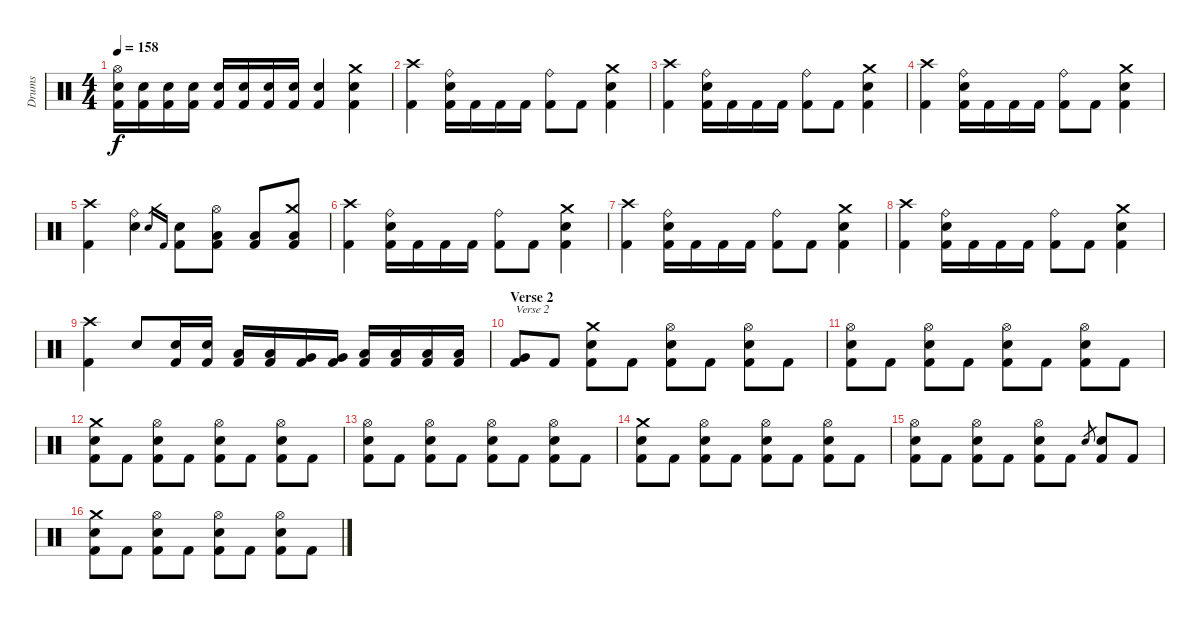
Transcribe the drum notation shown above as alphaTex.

\track ("Drums" "Drums") {instrument percussion}
\staff {score}
\articulation defaults
\ts (4 4)
\tempo 158
\clef neutral
\ks c
("Hi-Hat (open)" "Electric Snare (hit)" "Kick (hit) 2").16{dy f} ("Electric Snare (hit)" "Kick (hit) 2").16 ("Electric Snare (hit)" "Kick (hit) 2").16 ("Electric Snare (hit)" "Kick (hit) 2").16 ("Electric Snare (hit)" "Kick (hit) 2").16 ("Electric Snare (hit)" "Kick (hit) 2").16 ("Electric Snare (hit)" "Kick (hit) 2").16 ("Electric Snare (hit)" "Kick (hit) 2").16 ("Electric Snare (hit)" "Kick (hit) 2").4 ("Crash medium (hit)" "Electric Snare (hit)" "Kick (hit) 2").4 |
("Crash high (hit)" "Kick (hit) 2").4 ("Ride (bell)" "Electric Snare (hit)" "Kick (hit) 2").16 "Kick (hit) 2".16 "Kick (hit) 2".16 "Kick (hit) 2".16 ("Ride (bell)" "Kick (hit) 2").8 "Kick (hit) 2".8 ("Crash medium (hit)" "Electric Snare (hit)" "Kick (hit) 2").4 |
("Crash high (hit)" "Kick (hit) 2").4 ("Ride (bell)" "Electric Snare (hit)" "Kick (hit) 2").16 "Kick (hit) 2".16 "Kick (hit) 2".16 "Kick (hit) 2".16 ("Ride (bell)" "Kick (hit) 2").8 "Kick (hit) 2".8 ("Crash medium (hit)" "Electric Snare (hit)" "Kick (hit) 2").4 |
("Crash high (hit)" "Kick (hit) 2").4 ("Ride (bell)" "Electric Snare (hit)" "Kick (hit) 2").16 "Kick (hit) 2".16 "Kick (hit) 2".16 "Kick (hit) 2".16 ("Ride (bell)" "Kick (hit) 2").8 "Kick (hit) 2".8 ("Crash medium (hit)" "Electric Snare (hit)" "Kick (hit) 2").4 |
("Crash high (hit)" "Kick (hit) 2").4 ("Ride (bell)" "Electric Snare (hit)").4 "Electric Snare (hit)".16{gr} "Kick (hit) 2".16{gr} ("Electric Snare (hit)" "Kick (hit) 2").8 ("Hi-Hat (open)" "Low Floor Tom (hit)" "Kick (hit) 2").8 ("Low Floor Tom (hit)" "Kick (hit) 2").8 ("Crash medium (hit)" "Low Floor Tom (hit)" "Kick (hit) 2").8 |
("Crash high (hit)" "Kick (hit) 2").4 ("Ride (bell)" "Electric Snare (hit)" "Kick (hit) 2").16 "Kick (hit) 2".16 "Kick (hit) 2".16 "Kick (hit) 2".16 ("Ride (bell)" "Kick (hit) 2").8 "Kick (hit) 2".8 ("Crash medium (hit)" "Electric Snare (hit)" "Kick (hit) 2").4 |
("Crash high (hit)" "Kick (hit) 2").4 ("Ride (bell)" "Electric Snare (hit)" "Kick (hit) 2").16 "Kick (hit) 2".16 "Kick (hit) 2".16 "Kick (hit) 2".16 ("Ride (bell)" "Kick (hit) 2").8 "Kick (hit) 2".8 ("Crash medium (hit)" "Electric Snare (hit)" "Kick (hit) 2").4 |
("Crash high (hit)" "Kick (hit) 2").4 ("Ride (bell)" "Electric Snare (hit)" "Kick (hit) 2").16 "Kick (hit) 2".16 "Kick (hit) 2".16 "Kick (hit) 2".16 ("Ride (bell)" "Kick (hit) 2").8 "Kick (hit) 2".8 ("Crash medium (hit)" "Electric Snare (hit)" "Kick (hit) 2").4 |
("Crash high (hit)" "Kick (hit) 2").4 "Electric Snare (hit)".8 ("Electric Snare (hit)" "Kick (hit) 2").16 ("Electric Snare (hit)" "Kick (hit) 2").16 ("Low Floor Tom (hit)" "Kick (hit) 2").16 ("Low Floor Tom (hit)" "Kick (hit) 2").16 ("Very Low Tom (hit)" "Kick (hit) 2").16 ("Very Low Tom (hit)" "Kick (hit) 2").16 ("Low Tom (hit)" "Kick (hit) 2").16 ("Low Tom (hit)" "Kick (hit) 2").16 ("Low Tom (hit)" "Kick (hit) 2").16 ("Low Tom (hit)" "Kick (hit) 2").16 |
\section ("" "Verse 2")
("Very Low Tom (hit)" "Kick (hit) 2").8{txt "Verse 2"} "Kick (hit) 2".8 ("Crash medium (hit)" "Electric Snare (hit)" "Kick (hit) 2").8 "Kick (hit) 2".8 ("Hi-Hat (open)" "Electric Snare (hit)" "Kick (hit) 2").8 "Kick (hit) 2".8 ("Hi-Hat (open)" "Electric Snare (hit)" "Kick (hit) 2").8 "Kick (hit) 2".8 |
("Hi-Hat (open)" "Electric Snare (hit)" "Kick (hit) 2").8 "Kick (hit) 2".8 ("Hi-Hat (open)" "Electric Snare (hit)" "Kick (hit) 2").8 "Kick (hit) 2".8 ("Hi-Hat (open)" "Electric Snare (hit)" "Kick (hit) 2").8 "Kick (hit) 2".8 ("Hi-Hat (open)" "Electric Snare (hit)" "Kick (hit) 2").8 "Kick (hit) 2".8 |
("Crash medium (hit)" "Electric Snare (hit)" "Kick (hit) 2").8 "Kick (hit) 2".8 ("Hi-Hat (open)" "Electric Snare (hit)" "Kick (hit) 2").8 "Kick (hit) 2".8 ("Hi-Hat (open)" "Electric Snare (hit)" "Kick (hit) 2").8 "Kick (hit) 2".8 ("Hi-Hat (open)" "Electric Snare (hit)" "Kick (hit) 2").8 "Kick (hit) 2".8 |
("Hi-Hat (open)" "Electric Snare (hit)" "Kick (hit) 2").8 "Kick (hit) 2".8 ("Hi-Hat (open)" "Electric Snare (hit)" "Kick (hit) 2").8 "Kick (hit) 2".8 ("Hi-Hat (open)" "Electric Snare (hit)" "Kick (hit) 2").8 "Kick (hit) 2".8 ("Hi-Hat (open)" "Electric Snare (hit)" "Kick (hit) 2").8 "Kick (hit) 2".8 |
("Crash medium (hit)" "Electric Snare (hit)" "Kick (hit) 2").8 "Kick (hit) 2".8 ("Hi-Hat (open)" "Electric Snare (hit)" "Kick (hit) 2").8 "Kick (hit) 2".8 ("Hi-Hat (open)" "Electric Snare (hit)" "Kick (hit) 2").8 "Kick (hit) 2".8 ("Hi-Hat (open)" "Electric Snare (hit)" "Kick (hit) 2").8 "Kick (hit) 2".8 |
("Hi-Hat (open)" "Electric Snare (hit)" "Kick (hit) 2").8 "Kick (hit) 2".8 ("Hi-Hat (open)" "Electric Snare (hit)" "Kick (hit) 2").8 "Kick (hit) 2".8 ("Hi-Hat (open)" "Electric Snare (hit)" "Kick (hit) 2").8 "Kick (hit) 2".8 "Electric Snare (hit)".8{gr} ("Electric Snare (hit)" "Kick (hit) 2").8 "Kick (hit) 2".8 |
("Crash medium (hit)" "Electric Snare (hit)" "Kick (hit) 2").8 "Kick (hit) 2".8 ("Hi-Hat (open)" "Electric Snare (hit)" "Kick (hit) 2").8 "Kick (hit) 2".8 ("Hi-Hat (open)" "Electric Snare (hit)" "Kick (hit) 2").8 "Kick (hit) 2".8 ("Hi-Hat (open)" "Electric Snare (hit)" "Kick (hit) 2").8 "Kick (hit) 2".8
